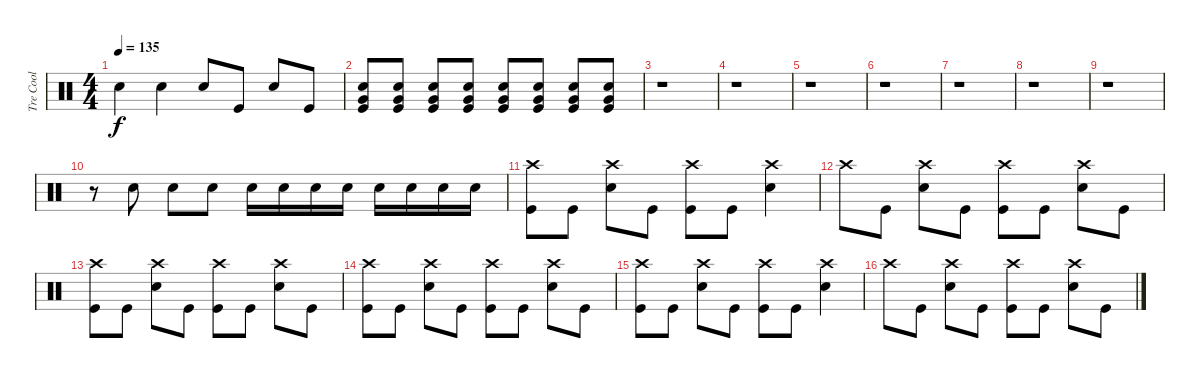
\track ("Tre Cool" "Tre Cool") {instrument percussion}
\staff {score}
\articulation defaults
\ts (4 4)
\tempo 135
\clef neutral
\ks c "Snare (hit) 2".4{dy f} "Snare (hit) 2".4 "Snare (hit) 2".8 "Kick (hit)".8 "Snare (hit) 2".8 "Kick (hit)".8
|
("Very Low Tom (hit)" "Snare (hit) 2" "Kick (hit)").8 ("Very Low Tom (hit)" "Snare (hit) 2" "Kick (hit)").8 ("Very Low Tom (hit)" "Snare (hit) 2" "Kick (hit)").8 ("Very Low Tom (hit)" "Snare (hit) 2" "Kick (hit)").8 ("Very Low Tom (hit)" "Snare (hit) 2" "Kick (hit)").8 ("Very Low Tom (hit)" "Snare (hit) 2" "Kick (hit)").8 ("Very Low Tom (hit)" "Snare (hit) 2" "Kick (hit)").8 ("Very Low Tom (hit)" "Snare (hit) 2" "Kick (hit)").8 |
r.1 |
r.1 |
r.1 |
r.1 |
r.1 |
r.1 |
r.1 |
r.8 "Snare (hit) 2".8 "Snare (hit) 2".8 "Snare (hit) 2".8 "Snare (hit) 2".16 "Snare (hit) 2".16 "Snare (hit) 2".16 "Snare (hit) 2".16 "Snare (hit) 2".16 "Snare (hit) 2".16 "Snare (hit) 2".16 "Snare (hit) 2".16 |
("Crash high (hit)" "Kick (hit)").8 "Kick (hit)".8 ("Crash high (hit)" "Snare (hit) 2").8 "Kick (hit)".8 ("Crash high (hit)" "Kick (hit)").8 "Kick (hit)".8 ("Crash high (hit)" "Snare (hit) 2").4 |
"Crash high (hit)".8 "Kick (hit)".8 ("Crash high (hit)" "Snare (hit) 2").8 "Kick (hit)".8 ("Crash high (hit)" "Kick (hit)").8 "Kick (hit)".8 ("Crash high (hit)" "Snare (hit) 2").8 "Kick (hit)".8 |
("Crash high (hit)" "Kick (hit)").8 "Kick (hit)".8 ("Crash high (hit)" "Snare (hit) 2").8 "Kick (hit)".8 ("Crash high (hit)" "Kick (hit)").8 "Kick (hit)".8 ("Crash high (hit)" "Snare (hit) 2").8 "Kick (hit)".8 |
("Crash high (hit)" "Kick (hit)").8 "Kick (hit)".8 ("Crash high (hit)" "Snare (hit) 2").8 "Kick (hit)".8 ("Crash high (hit)" "Kick (hit)").8 "Kick (hit)".8 ("Crash high (hit)" "Snare (hit) 2").8 "Kick (hit)".8 |
("Crash high (hit)" "Kick (hit)").8 "Kick (hit)".8 ("Crash high (hit)" "Snare (hit) 2").8 "Kick (hit)".8 ("Crash high (hit)" "Kick (hit)").8 "Kick (hit)".8 ("Crash high (hit)" "Snare (hit) 2").4 |
"Crash high (hit)".8 "Kick (hit)".8 ("Crash high (hit)" "Snare (hit) 2").8 "Kick (hit)".8 ("Crash high (hit)" "Kick (hit)").8 "Kick (hit)".8 ("Crash high (hit)" "Snare (hit) 2").8 "Kick (hit)".8
